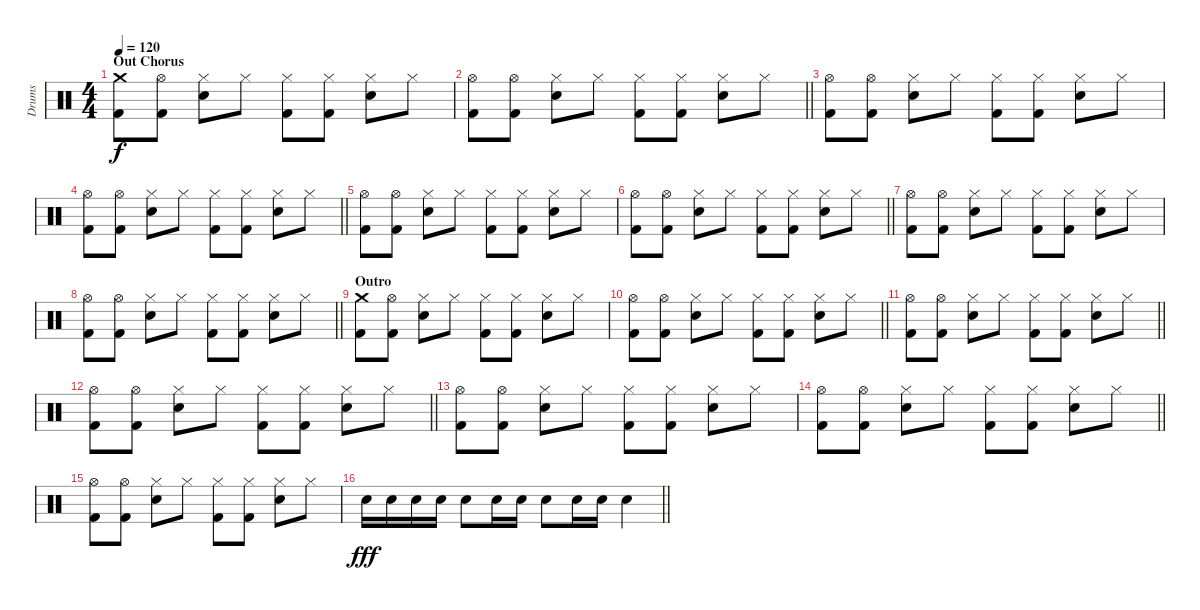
\track ("Drums" "Drums") {instrument percussion}
\staff {score}
\articulation defaults
\ts (4 4)
\section ("" "Out Chorus")
\tempo 120
\clef neutral
\ks c
("Crash medium (hit)" "Kick (hit) 2").8{dy f} ("Hi-Hat (open)" "Kick (hit) 2").8 ("Hi-Hat (closed)" "Electric Snare (hit)").8 "Hi-Hat (closed)".8 ("Hi-Hat (closed)" "Kick (hit) 2").8 ("Hi-Hat (closed)" "Kick (hit) 2").8 ("Hi-Hat (closed)" "Electric Snare (hit)").8 "Hi-Hat (closed)".8 |
\barLineRight lightlight
("Hi-Hat (open)" "Kick (hit) 2").8 ("Hi-Hat (open)" "Kick (hit) 2").8 ("Hi-Hat (closed)" "Electric Snare (hit)").8 "Hi-Hat (closed)".8 ("Hi-Hat (closed)" "Kick (hit) 2").8 ("Hi-Hat (closed)" "Kick (hit) 2").8 ("Hi-Hat (closed)" "Electric Snare (hit)").8 "Hi-Hat (closed)".8 |
("Hi-Hat (open)" "Kick (hit) 2").8 ("Hi-Hat (open)" "Kick (hit) 2").8 ("Hi-Hat (closed)" "Electric Snare (hit)").8 "Hi-Hat (closed)".8 ("Hi-Hat (closed)" "Kick (hit) 2").8 ("Hi-Hat (closed)" "Kick (hit) 2").8 ("Hi-Hat (closed)" "Electric Snare (hit)").8 "Hi-Hat (closed)".8 |
\barLineRight lightlight
("Hi-Hat (open)" "Kick (hit) 2").8 ("Hi-Hat (open)" "Kick (hit) 2").8 ("Hi-Hat (closed)" "Electric Snare (hit)").8 "Hi-Hat (closed)".8 ("Hi-Hat (closed)" "Kick (hit) 2").8 ("Hi-Hat (closed)" "Kick (hit) 2").8 ("Hi-Hat (closed)" "Electric Snare (hit)").8 "Hi-Hat (closed)".8 |
("Hi-Hat (open)" "Kick (hit) 2").8 ("Hi-Hat (open)" "Kick (hit) 2").8 ("Hi-Hat (closed)" "Electric Snare (hit)").8 "Hi-Hat (closed)".8 ("Hi-Hat (closed)" "Kick (hit) 2").8 ("Hi-Hat (closed)" "Kick (hit) 2").8 ("Hi-Hat (closed)" "Electric Snare (hit)").8 "Hi-Hat (closed)".8 |
\barLineRight lightlight
("Hi-Hat (open)" "Kick (hit) 2").8 ("Hi-Hat (open)" "Kick (hit) 2").8 ("Hi-Hat (closed)" "Electric Snare (hit)").8 "Hi-Hat (closed)".8 ("Hi-Hat (closed)" "Kick (hit) 2").8 ("Hi-Hat (closed)" "Kick (hit) 2").8 ("Hi-Hat (closed)" "Electric Snare (hit)").8 "Hi-Hat (closed)".8 |
("Hi-Hat (open)" "Kick (hit) 2").8 ("Hi-Hat (open)" "Kick (hit) 2").8 ("Hi-Hat (closed)" "Electric Snare (hit)").8 "Hi-Hat (closed)".8 ("Hi-Hat (closed)" "Kick (hit) 2").8 ("Hi-Hat (closed)" "Kick (hit) 2").8 ("Hi-Hat (closed)" "Electric Snare (hit)").8 "Hi-Hat (closed)".8 |
\barLineRight lightlight
("Hi-Hat (open)" "Kick (hit) 2").8 ("Hi-Hat (open)" "Kick (hit) 2").8 ("Hi-Hat (closed)" "Electric Snare (hit)").8 "Hi-Hat (closed)".8 ("Hi-Hat (closed)" "Kick (hit) 2").8 ("Hi-Hat (closed)" "Kick (hit) 2").8 ("Hi-Hat (closed)" "Electric Snare (hit)").8 "Hi-Hat (closed)".8 |
\section ("" "Outro")
("Crash medium (hit)" "Kick (hit) 2").8 ("Hi-Hat (open)" "Kick (hit) 2").8 ("Hi-Hat (closed)" "Electric Snare (hit)").8 "Hi-Hat (closed)".8 ("Hi-Hat (closed)" "Kick (hit) 2").8 ("Hi-Hat (closed)" "Kick (hit) 2").8 ("Hi-Hat (closed)" "Electric Snare (hit)").8 "Hi-Hat (closed)".8 |
\barLineRight lightlight
("Hi-Hat (open)" "Kick (hit) 2").8 ("Hi-Hat (open)" "Kick (hit) 2").8 ("Hi-Hat (closed)" "Electric Snare (hit)").8 "Hi-Hat (closed)".8 ("Hi-Hat (closed)" "Kick (hit) 2").8 ("Hi-Hat (closed)" "Kick (hit) 2").8 ("Hi-Hat (closed)" "Electric Snare (hit)").8 "Hi-Hat (closed)".8 |
\barLineRight lightlight
("Hi-Hat (open)" "Kick (hit) 2").8 ("Hi-Hat (open)" "Kick (hit) 2").8 ("Hi-Hat (closed)" "Electric Snare (hit)").8 "Hi-Hat (closed)".8 ("Hi-Hat (closed)" "Kick (hit) 2").8 ("Hi-Hat (closed)" "Kick (hit) 2").8 ("Hi-Hat (closed)" "Electric Snare (hit)").8 "Hi-Hat (closed)".8 |
\barLineRight lightlight
("Hi-Hat (open)" "Kick (hit) 2").8 ("Hi-Hat (open)" "Kick (hit) 2").8 ("Hi-Hat (closed)" "Electric Snare (hit)").8 "Hi-Hat (closed)".8 ("Hi-Hat (closed)" "Kick (hit) 2").8 ("Hi-Hat (closed)" "Kick (hit) 2").8 ("Hi-Hat (closed)" "Electric Snare (hit)").8 "Hi-Hat (closed)".8 |
("Hi-Hat (open)" "Kick (hit) 2").8 ("Hi-Hat (open)" "Kick (hit) 2").8 ("Hi-Hat (closed)" "Electric Snare (hit)").8 "Hi-Hat (closed)".8 ("Hi-Hat (closed)" "Kick (hit) 2").8 ("Hi-Hat (closed)" "Kick (hit) 2").8 ("Hi-Hat (closed)" "Electric Snare (hit)").8 "Hi-Hat (closed)".8 |
\barLineRight lightlight
("Hi-Hat (open)" "Kick (hit) 2").8 ("Hi-Hat (open)" "Kick (hit) 2").8 ("Hi-Hat (closed)" "Electric Snare (hit)").8 "Hi-Hat (closed)".8 ("Hi-Hat (closed)" "Kick (hit) 2").8 ("Hi-Hat (closed)" "Kick (hit) 2").8 ("Hi-Hat (closed)" "Electric Snare (hit)").8 "Hi-Hat (closed)".8 |
("Hi-Hat (open)" "Kick (hit) 2").8 ("Hi-Hat (open)" "Kick (hit) 2").8 ("Hi-Hat (closed)" "Electric Snare (hit)").8 "Hi-Hat (closed)".8 ("Hi-Hat (closed)" "Kick (hit) 2").8 ("Hi-Hat (closed)" "Kick (hit) 2").8 ("Hi-Hat (closed)" "Electric Snare (hit)").8 "Hi-Hat (closed)".8 |
\barLineRight lightlight "Snare (hit) 2".16{dy fff} "Snare (hit) 2".16 "Snare (hit) 2".16 "Snare (hit) 2".16 "Snare (hit) 2".8 "Snare (hit) 2".16 "Snare (hit) 2".16 "Snare (hit) 2".8 "Snare (hit) 2".16 "Snare (hit) 2".16 "Snare (hit) 2".4
